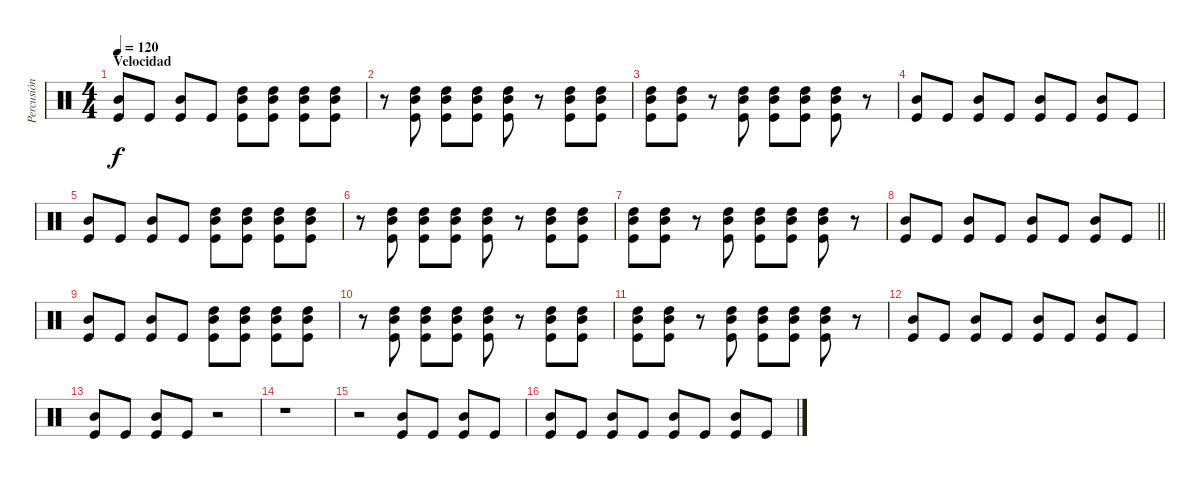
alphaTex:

\track ("Percusión" "Percusión") {instrument percussion}
\staff {score}
\articulation defaults
\ts (4 4)
\section ("" "Velocidad")
\tempo 120
\clef neutral
\ks c
("Mid Tom (hit)" "Kick (hit)").8{dy f} "Kick (hit)".8 ("Mid Tom (hit)" "Kick (hit)").8 "Kick (hit)".8 ("High Tom (hit)" "Mid Tom (hit)" "Kick (hit)").8 ("High Tom (hit)" "Mid Tom (hit)" "Kick (hit)").8 ("High Tom (hit)" "Mid Tom (hit)" "Kick (hit)").8 ("High Tom (hit)" "Mid Tom (hit)" "Kick (hit)").8 |
r.8 ("High Tom (hit)" "Mid Tom (hit)" "Kick (hit)").8 ("High Tom (hit)" "Mid Tom (hit)" "Kick (hit)").8 ("High Tom (hit)" "Mid Tom (hit)" "Kick (hit)").8 ("High Tom (hit)" "Mid Tom (hit)" "Kick (hit)").8 r.8 ("High Tom (hit)" "Mid Tom (hit)" "Kick (hit)").8 ("High Tom (hit)" "Mid Tom (hit)" "Kick (hit)").8 |
("High Tom (hit)" "Mid Tom (hit)" "Kick (hit)").8 ("High Tom (hit)" "Mid Tom (hit)" "Kick (hit)").8 r.8 ("High Tom (hit)" "Mid Tom (hit)" "Kick (hit)").8 ("High Tom (hit)" "Mid Tom (hit)" "Kick (hit)").8 ("High Tom (hit)" "Mid Tom (hit)" "Kick (hit)").8 ("High Tom (hit)" "Mid Tom (hit)" "Kick (hit)").8 r.8 |
("Mid Tom (hit)" "Kick (hit)").8 "Kick (hit)".8 ("Mid Tom (hit)" "Kick (hit)").8 "Kick (hit)".8 ("Mid Tom (hit)" "Kick (hit)").8 "Kick (hit)".8 ("Mid Tom (hit)" "Kick (hit)").8 "Kick (hit)".8 |
("Mid Tom (hit)" "Kick (hit)").8 "Kick (hit)".8 ("Mid Tom (hit)" "Kick (hit)").8 "Kick (hit)".8 ("High Tom (hit)" "Mid Tom (hit)" "Kick (hit)").8 ("High Tom (hit)" "Mid Tom (hit)" "Kick (hit)").8 ("High Tom (hit)" "Mid Tom (hit)" "Kick (hit)").8 ("High Tom (hit)" "Mid Tom (hit)" "Kick (hit)").8 |
r.8 ("High Tom (hit)" "Mid Tom (hit)" "Kick (hit)").8 ("High Tom (hit)" "Mid Tom (hit)" "Kick (hit)").8 ("High Tom (hit)" "Mid Tom (hit)" "Kick (hit)").8 ("High Tom (hit)" "Mid Tom (hit)" "Kick (hit)").8 r.8 ("High Tom (hit)" "Mid Tom (hit)" "Kick (hit)").8 ("High Tom (hit)" "Mid Tom (hit)" "Kick (hit)").8 |
("High Tom (hit)" "Mid Tom (hit)" "Kick (hit)").8 ("High Tom (hit)" "Mid Tom (hit)" "Kick (hit)").8 r.8 ("High Tom (hit)" "Mid Tom (hit)" "Kick (hit)").8 ("High Tom (hit)" "Mid Tom (hit)" "Kick (hit)").8 ("High Tom (hit)" "Mid Tom (hit)" "Kick (hit)").8 ("High Tom (hit)" "Mid Tom (hit)" "Kick (hit)").8 r.8 |
\barLineRight lightlight
("Mid Tom (hit)" "Kick (hit)").8 "Kick (hit)".8 ("Mid Tom (hit)" "Kick (hit)").8 "Kick (hit)".8 ("Mid Tom (hit)" "Kick (hit)").8 "Kick (hit)".8 ("Mid Tom (hit)" "Kick (hit)").8 "Kick (hit)".8 |
\section ("" "")
("Mid Tom (hit)" "Kick (hit)").8 "Kick (hit)".8 ("Mid Tom (hit)" "Kick (hit)").8 "Kick (hit)".8 ("High Tom (hit)" "Mid Tom (hit)" "Kick (hit)").8 ("High Tom (hit)" "Mid Tom (hit)" "Kick (hit)").8 ("High Tom (hit)" "Mid Tom (hit)" "Kick (hit)").8 ("High Tom (hit)" "Mid Tom (hit)" "Kick (hit)").8 |
r.8 ("High Tom (hit)" "Mid Tom (hit)" "Kick (hit)").8 ("High Tom (hit)" "Mid Tom (hit)" "Kick (hit)").8 ("High Tom (hit)" "Mid Tom (hit)" "Kick (hit)").8 ("High Tom (hit)" "Mid Tom (hit)" "Kick (hit)").8 r.8 ("High Tom (hit)" "Mid Tom (hit)" "Kick (hit)").8 ("High Tom (hit)" "Mid Tom (hit)" "Kick (hit)").8 |
("High Tom (hit)" "Mid Tom (hit)" "Kick (hit)").8 ("High Tom (hit)" "Mid Tom (hit)" "Kick (hit)").8 r.8 ("High Tom (hit)" "Mid Tom (hit)" "Kick (hit)").8 ("High Tom (hit)" "Mid Tom (hit)" "Kick (hit)").8 ("High Tom (hit)" "Mid Tom (hit)" "Kick (hit)").8 ("High Tom (hit)" "Mid Tom (hit)" "Kick (hit)").8 r.8 |
("Mid Tom (hit)" "Kick (hit)").8 "Kick (hit)".8 ("Mid Tom (hit)" "Kick (hit)").8 "Kick (hit)".8 ("Mid Tom (hit)" "Kick (hit)").8 "Kick (hit)".8 ("Mid Tom (hit)" "Kick (hit)").8 "Kick (hit)".8 |
("Mid Tom (hit)" "Kick (hit)").8 "Kick (hit)".8 ("Mid Tom (hit)" "Kick (hit)").8 "Kick (hit)".8 r.2 |
r.1 |
r.2 ("Mid Tom (hit)" "Kick (hit)").8 "Kick (hit)".8 ("Mid Tom (hit)" "Kick (hit)").8 "Kick (hit)".8 |
("Mid Tom (hit)" "Kick (hit)").8 "Kick (hit)".8 ("Mid Tom (hit)" "Kick (hit)").8 "Kick (hit)".8 ("Mid Tom (hit)" "Kick (hit)").8 "Kick (hit)".8 ("Mid Tom (hit)" "Kick (hit)").8 "Kick (hit)".8
